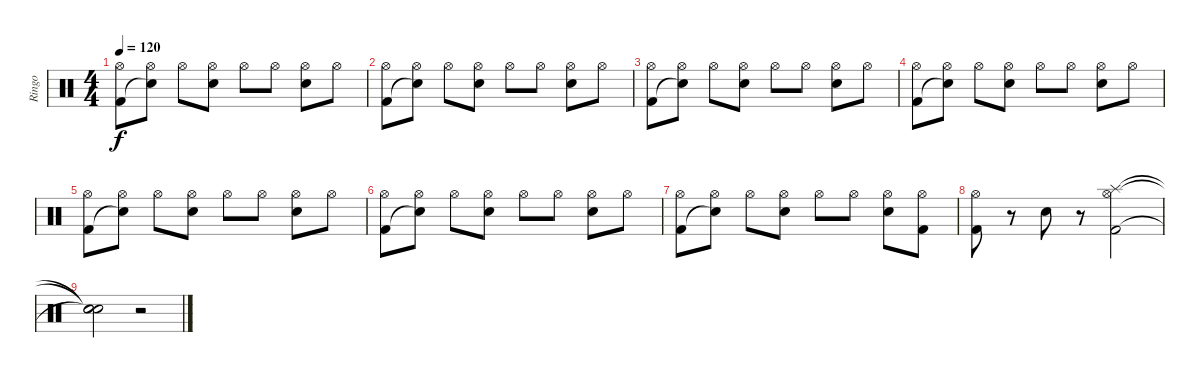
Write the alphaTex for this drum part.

\track ("Ringo" "Ringo") {instrument percussion}
\staff {score}
\articulation defaults
\ts (4 4)
\tempo 120
\clef neutral
\ks c
("Hi-Hat (open)" "Kick (hit) 2").8{dy f} ("Hi-Hat (open)" "Snare (hit)"{t}).8 "Hi-Hat (open)".8 ("Hi-Hat (open)" "Snare (hit) 2").8 "Hi-Hat (open)".8 "Hi-Hat (open)".8 ("Hi-Hat (open)" "Snare (hit) 2").8 "Hi-Hat (open)".8 |
("Hi-Hat (open)" "Kick (hit) 2").8 ("Hi-Hat (open)" "Snare (hit)"{t}).8 "Hi-Hat (open)".8 ("Hi-Hat (open)" "Snare (hit) 2").8 "Hi-Hat (open)".8 "Hi-Hat (open)".8 ("Hi-Hat (open)" "Snare (hit) 2").8 "Hi-Hat (open)".8 |
("Hi-Hat (open)" "Kick (hit) 2").8 ("Hi-Hat (open)" "Snare (hit)"{t}).8 "Hi-Hat (open)".8 ("Hi-Hat (open)" "Snare (hit) 2").8 "Hi-Hat (open)".8 "Hi-Hat (open)".8 ("Hi-Hat (open)" "Snare (hit) 2").8 "Hi-Hat (open)".8 |
("Hi-Hat (open)" "Kick (hit) 2").8 ("Hi-Hat (open)" "Snare (hit)"{t}).8 "Hi-Hat (open)".8 ("Hi-Hat (open)" "Snare (hit) 2").8 "Hi-Hat (open)".8 "Hi-Hat (open)".8 ("Hi-Hat (open)" "Snare (hit) 2").8 "Hi-Hat (open)".8 |
("Hi-Hat (open)" "Kick (hit) 2").8 ("Hi-Hat (open)" "Snare (hit)"{t}).8 "Hi-Hat (open)".8 ("Hi-Hat (open)" "Snare (hit) 2").8 "Hi-Hat (open)".8 "Hi-Hat (open)".8 ("Hi-Hat (open)" "Snare (hit) 2").8 "Hi-Hat (open)".8 |
("Hi-Hat (open)" "Kick (hit) 2").8 ("Hi-Hat (open)" "Snare (hit)"{t}).8 "Hi-Hat (open)".8 ("Hi-Hat (open)" "Snare (hit) 2").8 "Hi-Hat (open)".8 "Hi-Hat (open)".8 ("Hi-Hat (open)" "Snare (hit) 2").8 "Hi-Hat (open)".8 |
("Hi-Hat (open)" "Kick (hit) 2").8 ("Hi-Hat (open)" "Snare (hit)"{t}).8 "Hi-Hat (open)".8 ("Hi-Hat (open)" "Snare (hit) 2").8 "Hi-Hat (open)".8 "Hi-Hat (open)".8 ("Hi-Hat (open)" "Snare (hit) 2").8 ("Hi-Hat (open)" "Kick (hit) 2").8 |
("Hi-Hat (open)" "Kick (hit) 2").8 r.8 "Snare (hit) 2".8 r.8 ("Hi-Hat (open)" "Splash (hit)" "Kick (hit) 2").2 |
("Snare (hit)"{t} "Snare (hit)"{t} "Snare (hit)"{t}).2 r.2
